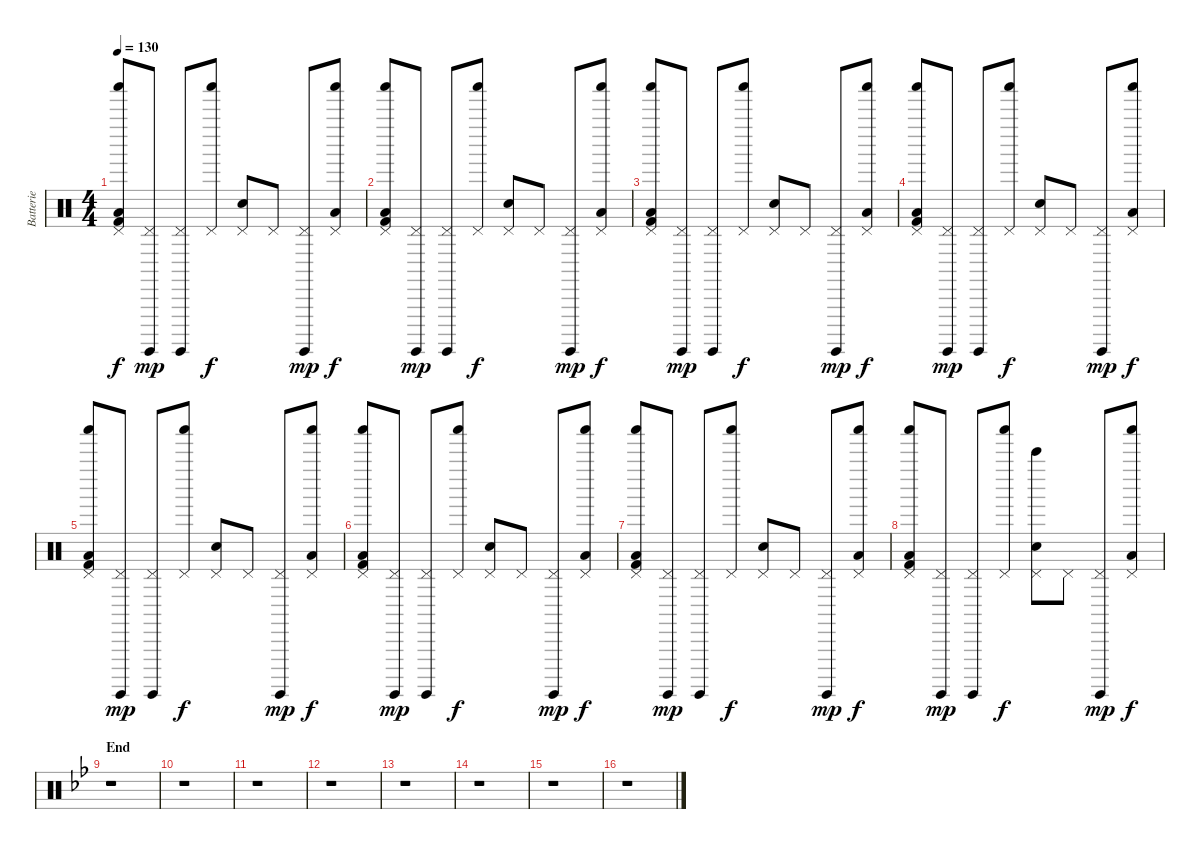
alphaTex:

\track ("Batterie" "Batterie") {instrument percussion}
\staff {score}
\articulation defaults
\ts (4 4)
\tempo 130
\clef neutral
\ks c
("Pedal Hi-Hat (hit)" "Shaker (hit)" "Low Floor Tom (hit)" "Kick (hit) 2").8{dy f} ("Pedal Hi-Hat (hit)" "Surdo (hit)").8{dy mp} ("Pedal Hi-Hat (hit)" "Surdo (hit)").8 ("Pedal Hi-Hat (hit)" "Shaker (hit)").8{dy f} ("Pedal Hi-Hat (hit)" "Electric Snare (hit)").8 "Pedal Hi-Hat (hit)".8 ("Pedal Hi-Hat (hit)" "Surdo (hit)").8{dy mp} ("Pedal Hi-Hat (hit)" "Shaker (hit)" "Low Floor Tom (hit)").8{dy f} |
("Pedal Hi-Hat (hit)" "Shaker (hit)" "Low Floor Tom (hit)" "Kick (hit) 2").8 ("Pedal Hi-Hat (hit)" "Surdo (hit)").8{dy mp} ("Pedal Hi-Hat (hit)" "Surdo (hit)").8 ("Pedal Hi-Hat (hit)" "Shaker (hit)").8{dy f} ("Pedal Hi-Hat (hit)" "Electric Snare (hit)").8 "Pedal Hi-Hat (hit)".8 ("Pedal Hi-Hat (hit)" "Surdo (hit)").8{dy mp} ("Pedal Hi-Hat (hit)" "Shaker (hit)" "Low Floor Tom (hit)").8{dy f} |
("Pedal Hi-Hat (hit)" "Shaker (hit)" "Low Floor Tom (hit)" "Kick (hit) 2").8 ("Pedal Hi-Hat (hit)" "Surdo (hit)").8{dy mp} ("Pedal Hi-Hat (hit)" "Surdo (hit)").8 ("Pedal Hi-Hat (hit)" "Shaker (hit)").8{dy f} ("Pedal Hi-Hat (hit)" "Electric Snare (hit)").8 "Pedal Hi-Hat (hit)".8 ("Pedal Hi-Hat (hit)" "Surdo (hit)").8{dy mp} ("Pedal Hi-Hat (hit)" "Shaker (hit)" "Low Floor Tom (hit)").8{dy f} |
("Pedal Hi-Hat (hit)" "Shaker (hit)" "Low Floor Tom (hit)" "Kick (hit) 2").8 ("Pedal Hi-Hat (hit)" "Surdo (hit)").8{dy mp} ("Pedal Hi-Hat (hit)" "Surdo (hit)").8 ("Pedal Hi-Hat (hit)" "Shaker (hit)").8{dy f} ("Pedal Hi-Hat (hit)" "Electric Snare (hit)").8 "Pedal Hi-Hat (hit)".8 ("Pedal Hi-Hat (hit)" "Surdo (hit)").8{dy mp} ("Pedal Hi-Hat (hit)" "Shaker (hit)" "Low Floor Tom (hit)").8{dy f} |
("Pedal Hi-Hat (hit)" "Shaker (hit)" "Low Floor Tom (hit)" "Kick (hit) 2").8 ("Pedal Hi-Hat (hit)" "Surdo (hit)").8{dy mp} ("Pedal Hi-Hat (hit)" "Surdo (hit)").8 ("Pedal Hi-Hat (hit)" "Shaker (hit)").8{dy f} ("Pedal Hi-Hat (hit)" "Electric Snare (hit)").8 "Pedal Hi-Hat (hit)".8 ("Pedal Hi-Hat (hit)" "Surdo (hit)").8{dy mp} ("Pedal Hi-Hat (hit)" "Shaker (hit)" "Low Floor Tom (hit)").8{dy f} |
("Pedal Hi-Hat (hit)" "Shaker (hit)" "Low Floor Tom (hit)" "Kick (hit) 2").8 ("Pedal Hi-Hat (hit)" "Surdo (hit)").8{dy mp} ("Pedal Hi-Hat (hit)" "Surdo (hit)").8 ("Pedal Hi-Hat (hit)" "Shaker (hit)").8{dy f} ("Pedal Hi-Hat (hit)" "Electric Snare (hit)").8 "Pedal Hi-Hat (hit)".8 ("Pedal Hi-Hat (hit)" "Surdo (hit)").8{dy mp} ("Pedal Hi-Hat (hit)" "Shaker (hit)" "Low Floor Tom (hit)").8{dy f} |
("Pedal Hi-Hat (hit)" "Shaker (hit)" "Low Floor Tom (hit)" "Kick (hit) 2").8 ("Pedal Hi-Hat (hit)" "Surdo (hit)").8{dy mp} ("Pedal Hi-Hat (hit)" "Surdo (hit)").8 ("Pedal Hi-Hat (hit)" "Shaker (hit)").8{dy f} ("Pedal Hi-Hat (hit)" "Electric Snare (hit)").8 "Pedal Hi-Hat (hit)".8 ("Pedal Hi-Hat (hit)" "Surdo (hit)").8{dy mp} ("Pedal Hi-Hat (hit)" "Shaker (hit)" "Low Floor Tom (hit)").8{dy f} |
("Pedal Hi-Hat (hit)" "Shaker (hit)" "Low Floor Tom (hit)" "Kick (hit) 2").8 ("Pedal Hi-Hat (hit)" "Surdo (hit)").8{dy mp} ("Pedal Hi-Hat (hit)" "Surdo (hit)").8 ("Pedal Hi-Hat (hit)" "Shaker (hit)").8{dy f} ("Pedal Hi-Hat (hit)" "Bell Tree (hit)" "Electric Snare (hit)").8 "Pedal Hi-Hat (hit)".8 ("Pedal Hi-Hat (hit)" "Surdo (hit)").8{dy mp} ("Pedal Hi-Hat (hit)" "Shaker (hit)" "Low Floor Tom (hit)").8{dy f} |
\section ("" "End")
\ks bb
r.1 |
r.1 |
r.1 |
r.1 |
r.1 |
r.1 |
r.1 |
r.1
